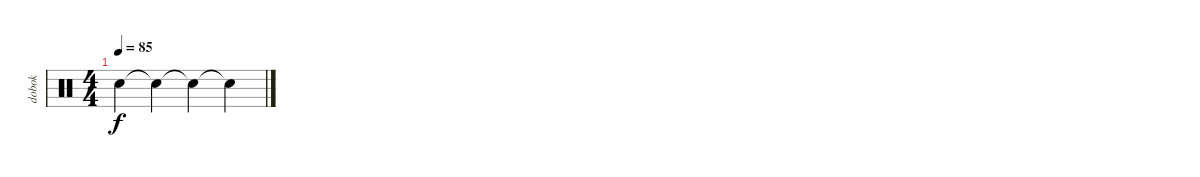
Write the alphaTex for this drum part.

\track ("dobok" "dobok") {instrument percussion}
\staff {score}
\articulation defaults
\ts (4 4)
\tempo 85
\clef neutral
\ks c "Snare (hit)"{t}.4{dy f} "Snare (hit)"{t}.4 "Snare (hit)"{t}.4 "Snare (hit)"{t}.4
